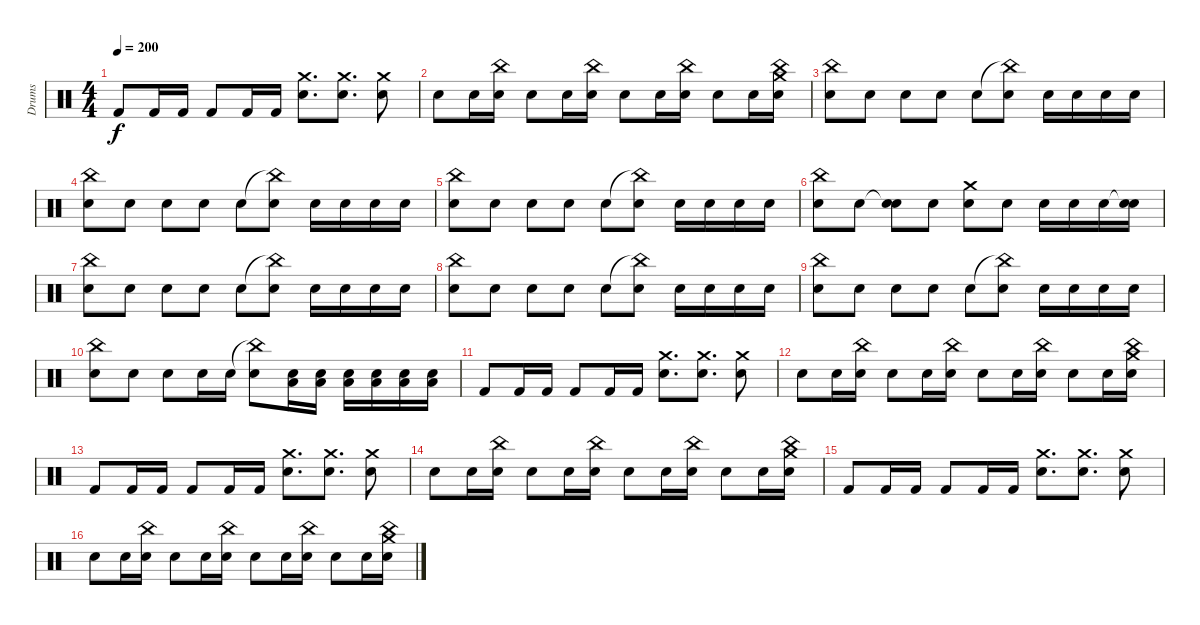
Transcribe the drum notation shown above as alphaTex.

\track ("Drums" "Drums") {instrument percussion}
\staff {score}
\articulation defaults
\ts (4 4)
\tempo 200
\clef neutral
\ks c "Kick (hit) 2".8{dy f} "Kick (hit) 2".16 "Kick (hit) 2".16 "Kick (hit) 2".8 "Kick (hit) 2".16 "Kick (hit) 2".16
("Snare (hit) 2" "Crash medium (hit)").8{d} ("Snare (hit) 2" "Crash medium (hit)").8{d} ("Snare (hit) 2" "Crash medium (hit)").8 |
"Snare (hit) 2".8 "Snare (hit) 2".16 ("Snare (hit) 2" "China (hit)").16 "Snare (hit) 2".8 "Snare (hit) 2".16 ("Snare (hit) 2" "China (hit)").16 "Snare (hit) 2".8 "Snare (hit) 2".16 ("Snare (hit) 2" "China (hit)").16 "Snare (hit) 2".8 "Snare (hit) 2".16 ("Snare (hit) 2" "Crash medium (hit)" "China (hit)").16 |
("China (hit)" "Snare (hit) 2").8 "Snare (hit) 2".8 "Snare (hit) 2".8 "Snare (hit) 2".8 "Snare (hit) 2".8 ("China (hit)"{t} "Snare (hit) 2").8 "Snare (hit) 2".16 "Snare (hit) 2".16 "Snare (hit) 2".16 "Snare (hit) 2".16 |
("China (hit)" "Snare (hit) 2").8 "Snare (hit) 2".8 "Snare (hit) 2".8 "Snare (hit) 2".8 "Snare (hit) 2".8 ("China (hit)"{t} "Snare (hit) 2").8 "Snare (hit) 2".16 "Snare (hit) 2".16 "Snare (hit) 2".16 "Snare (hit) 2".16 |
("China (hit)" "Snare (hit) 2").8 "Snare (hit) 2".8 "Snare (hit) 2".8 "Snare (hit) 2".8 "Snare (hit) 2".8 ("China (hit)"{t} "Snare (hit) 2").8 "Snare (hit) 2".16 "Snare (hit) 2".16 "Snare (hit) 2".16 "Snare (hit) 2".16 |
("China (hit)" "Snare (hit) 2").8 "Snare (hit) 2".8 ("Snare (hit)"{t} "Snare (hit) 2").8 "Snare (hit) 2".8 ("Crash medium (hit)" "Snare (hit) 2").8 "Snare (hit) 2".8 "Snare (hit) 2".16 "Snare (hit) 2".16 "Snare (hit) 2".16 ("Snare (hit)"{t} "Snare (hit) 2").16 |
("China (hit)" "Snare (hit) 2").8 "Snare (hit) 2".8 "Snare (hit) 2".8 "Snare (hit) 2".8 "Snare (hit) 2".8 ("China (hit)"{t} "Snare (hit) 2").8 "Snare (hit) 2".16 "Snare (hit) 2".16 "Snare (hit) 2".16 "Snare (hit) 2".16 |
("China (hit)" "Snare (hit) 2").8 "Snare (hit) 2".8 "Snare (hit) 2".8 "Snare (hit) 2".8 "Snare (hit) 2".8 ("China (hit)"{t} "Snare (hit) 2").8 "Snare (hit) 2".16 "Snare (hit) 2".16 "Snare (hit) 2".16 "Snare (hit) 2".16 |
("China (hit)" "Snare (hit) 2").8 "Snare (hit) 2".8 "Snare (hit) 2".8 "Snare (hit) 2".8 "Snare (hit) 2".8 ("China (hit)"{t} "Snare (hit) 2").8 "Snare (hit) 2".16 "Snare (hit) 2".16 "Snare (hit) 2".16 "Snare (hit) 2".16 |
("China (hit)" "Snare (hit) 2").8 "Snare (hit) 2".8 "Snare (hit) 2".8 "Snare (hit) 2".16 "Snare (hit) 2".16 ("China (hit)"{t} "Snare (hit) 2").8 ("Low Floor Tom (hit)" "Electric Snare (hit)").16 ("Low Floor Tom (hit)" "Electric Snare (hit)").16 ("Low Floor Tom (hit)" "Electric Snare (hit)").16 ("Low Floor Tom (hit)" "Electric Snare (hit)").16 ("Low Floor Tom (hit)" "Electric Snare (hit)").16 ("Low Floor Tom (hit)" "Electric Snare (hit)").16 |
"Kick (hit) 2".8 "Kick (hit) 2".16 "Kick (hit) 2".16 "Kick (hit) 2".8 "Kick (hit) 2".16 "Kick (hit) 2".16 ("Snare (hit) 2" "Crash medium (hit)").8{d} ("Snare (hit) 2" "Crash medium (hit)").8{d} ("Snare (hit) 2" "Crash medium (hit)").8 |
"Snare (hit) 2".8 "Snare (hit) 2".16 ("Snare (hit) 2" "China (hit)").16 "Snare (hit) 2".8 "Snare (hit) 2".16 ("Snare (hit) 2" "China (hit)").16 "Snare (hit) 2".8 "Snare (hit) 2".16 ("Snare (hit) 2" "China (hit)").16 "Snare (hit) 2".8 "Snare (hit) 2".16 ("Snare (hit) 2" "Crash medium (hit)" "China (hit)").16 |
"Kick (hit) 2".8 "Kick (hit) 2".16 "Kick (hit) 2".16 "Kick (hit) 2".8 "Kick (hit) 2".16 "Kick (hit) 2".16 ("Snare (hit) 2" "Crash medium (hit)").8{d} ("Snare (hit) 2" "Crash medium (hit)").8{d} ("Snare (hit) 2" "Crash medium (hit)").8 |
"Snare (hit) 2".8 "Snare (hit) 2".16 ("Snare (hit) 2" "China (hit)").16 "Snare (hit) 2".8 "Snare (hit) 2".16 ("Snare (hit) 2" "China (hit)").16 "Snare (hit) 2".8 "Snare (hit) 2".16 ("Snare (hit) 2" "China (hit)").16 "Snare (hit) 2".8 "Snare (hit) 2".16 ("Snare (hit) 2" "Crash medium (hit)" "China (hit)").16 |
"Kick (hit) 2".8 "Kick (hit) 2".16 "Kick (hit) 2".16 "Kick (hit) 2".8 "Kick (hit) 2".16 "Kick (hit) 2".16 ("Snare (hit) 2" "Crash medium (hit)").8{d} ("Snare (hit) 2" "Crash medium (hit)").8{d} ("Snare (hit) 2" "Crash medium (hit)").8 |
"Snare (hit) 2".8 "Snare (hit) 2".16 ("Snare (hit) 2" "China (hit)").16 "Snare (hit) 2".8 "Snare (hit) 2".16 ("Snare (hit) 2" "China (hit)").16 "Snare (hit) 2".8 "Snare (hit) 2".16 ("Snare (hit) 2" "China (hit)").16 "Snare (hit) 2".8 "Snare (hit) 2".16 ("Snare (hit) 2" "Crash medium (hit)" "China (hit)").16
